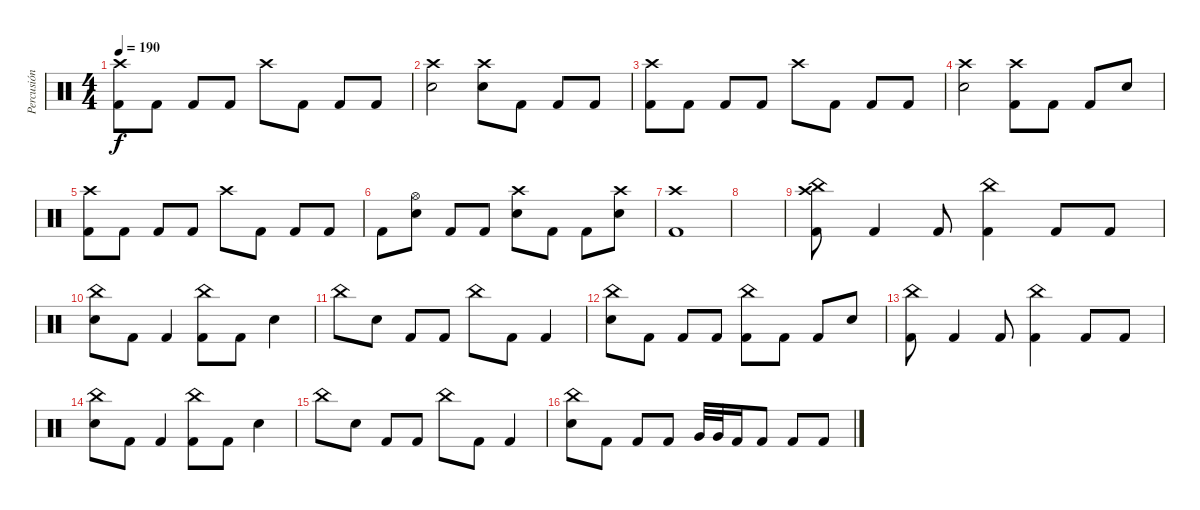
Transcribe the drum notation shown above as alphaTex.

\track ("Percusión" "Percusión") {instrument percussion}
\staff {score}
\articulation defaults
\ts (4 4)
\tempo 190
\clef neutral
\ks c
("Crash high (hit)" "Kick (hit) 2").8{dy f} "Kick (hit) 2".8 "Kick (hit) 2".8 "Kick (hit) 2".8 "Crash high (hit)".8 "Kick (hit) 2".8 "Kick (hit) 2".8 "Kick (hit) 2".8 |
("Crash high (hit)" "Electric Snare (hit)").2 ("Crash high (hit)" "Electric Snare (hit)").8 "Kick (hit) 2".8 "Kick (hit) 2".8 "Kick (hit) 2".8 |
("Crash high (hit)" "Kick (hit) 2").8 "Kick (hit) 2".8 "Kick (hit) 2".8 "Kick (hit) 2".8 "Crash high (hit)".8 "Kick (hit) 2".8 "Kick (hit) 2".8 "Kick (hit) 2".8 |
("Crash high (hit)" "Electric Snare (hit)").2 ("Crash high (hit)" "Kick (hit) 2").8 "Kick (hit) 2".8 "Kick (hit) 2".8 "Electric Snare (hit)".8 |
("Crash high (hit)" "Kick (hit) 2").8 "Kick (hit) 2".8 "Kick (hit) 2".8 "Kick (hit) 2".8 "Crash high (hit)".8 "Kick (hit) 2".8 "Kick (hit) 2".8 "Kick (hit) 2".8 |
"Kick (hit) 2".8 ("Hi-Hat (open)" "Electric Snare (hit)").8 "Kick (hit) 2".8 "Kick (hit) 2".8 ("Crash high (hit)" "Electric Snare (hit)").8 "Kick (hit) 2".8 "Kick (hit) 2".8 ("Crash high (hit)" "Electric Snare (hit)").8 |
("Crash high (hit)" "Kick (hit) 2").1 |
|
("Crash high (hit)" "China (hit)" "Kick (hit) 2").8 "Kick (hit) 2".4 "Kick (hit) 2".8 ("China (hit)" "Kick (hit) 2").4 "Kick (hit) 2".8 "Kick (hit) 2".8 |
("China (hit)" "Electric Snare (hit)").8 "Kick (hit) 2".8 "Kick (hit) 2".4 ("China (hit)" "Kick (hit) 2").8 "Kick (hit) 2".8 "Electric Snare (hit)".4 |
"China (hit)".8 "Electric Snare (hit)".8 "Kick (hit) 2".8 "Kick (hit) 2".8 "China (hit)".8 "Kick (hit) 2".8 "Kick (hit) 2".4 |
("China (hit)" "Electric Snare (hit)").8 "Kick (hit) 2".8 "Kick (hit) 2".8 "Kick (hit) 2".8 ("China (hit)" "Kick (hit) 2").8 "Kick (hit) 2".8 "Kick (hit) 2".8 "Electric Snare (hit)".8 |
("China (hit)" "Kick (hit) 2").8 "Kick (hit) 2".4 "Kick (hit) 2".8 ("China (hit)" "Kick (hit) 2").4 "Kick (hit) 2".8 "Kick (hit) 2".8 |
("China (hit)" "Electric Snare (hit)").8 "Kick (hit) 2".8 "Kick (hit) 2".4 ("China (hit)" "Kick (hit) 2").8 "Kick (hit) 2".8 "Electric Snare (hit)".4 |
"China (hit)".8 "Electric Snare (hit)".8 "Kick (hit) 2".8 "Kick (hit) 2".8 "China (hit)".8 "Kick (hit) 2".8 "Kick (hit) 2".4 |
("China (hit)" "Electric Snare (hit)").8 "Kick (hit) 2".8 "Kick (hit) 2".8 "Kick (hit) 2".8 "Very Low Tom (hit)".32 "Very Low Tom (hit)".32 "Kick (hit) 2".16 "Kick (hit) 2".8 "Kick (hit) 2".8 "Kick (hit) 2".8
